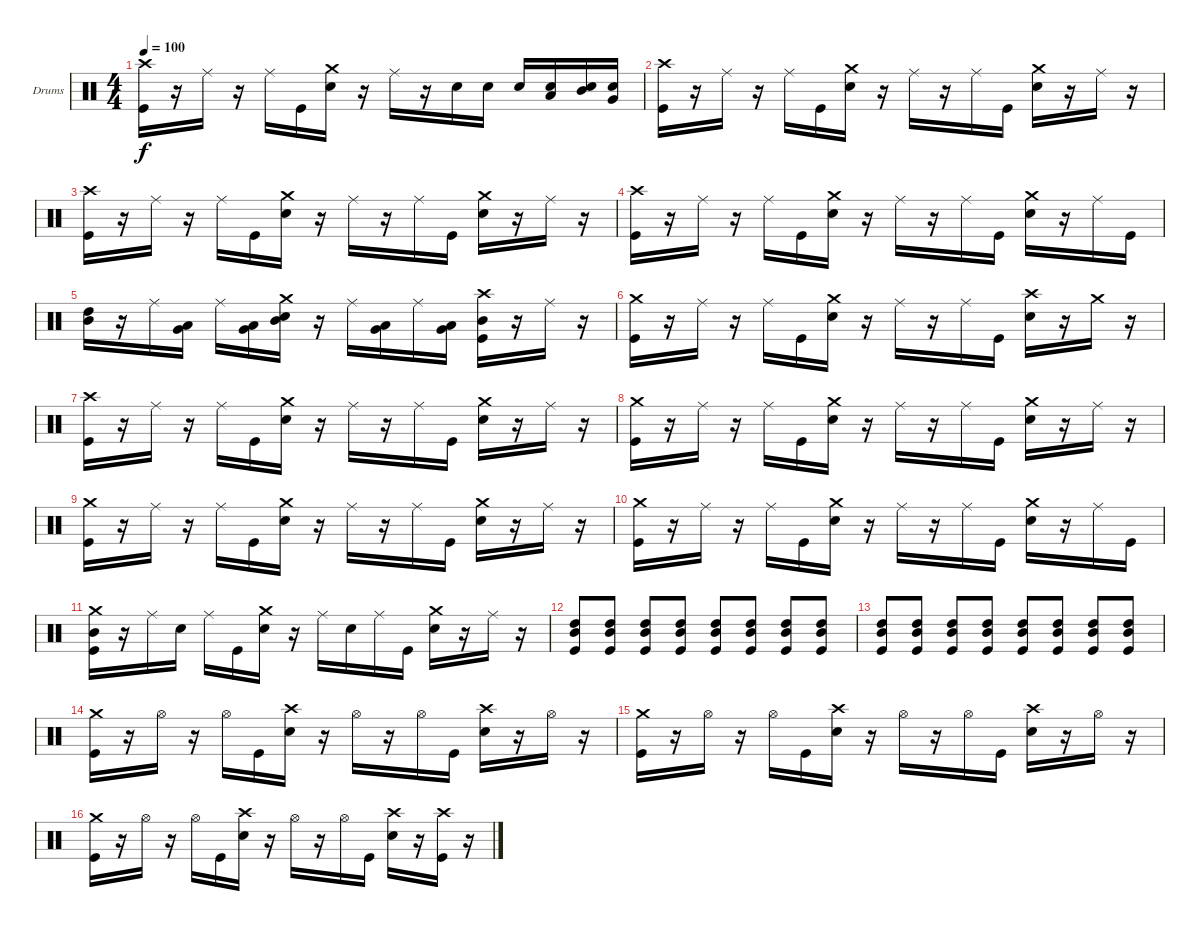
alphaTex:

\bracketExtendMode groupsimilarinstruments
\firstSystemTrackNameOrientation horizontal
\otherSystemsTrackNameOrientation horizontal
\track ("Drumkit (Christoph)" "Drums") {instrument percussion}
\staff {score}
\articulation defaults
\ts (4 4)
\tempo 100
\clef neutral
\ks c
("Crash high (hit)" "Kick (hit)").16{dy f} r.16 "Ride (middle)".16 r.16 "Ride (middle)".16 "Kick (hit)".16 ("Crash medium (hit)" "Snare (hit) 2").16 r.16 "Ride (middle)".16 r.16 "Snare (hit) 2".16 "Snare (hit) 2".16 "Snare (hit) 2".16 ("Low Tom (hit)" "Snare (hit) 2").16 ("Mid Tom (hit)" "Snare (hit) 2").16 ("Very Low Tom (hit)" "Snare (hit) 2").16 |
("Crash high (hit)" "Kick (hit)").16 r.16 "Ride (middle)".16 r.16 "Ride (middle)".16 "Kick (hit)".16 ("Crash medium (hit)" "Snare (hit) 2").16 r.16 "Ride (middle)".16 r.16 "Ride (middle)".16 "Kick (hit)".16 ("Crash medium (hit)" "Snare (hit) 2").16 r.16 "Ride (middle)".16 r.16 |
("Crash high (hit)" "Kick (hit)").16 r.16 "Ride (middle)".16 r.16 "Ride (middle)".16 "Kick (hit)".16 ("Crash medium (hit)" "Snare (hit) 2").16 r.16 "Ride (middle)".16 r.16 "Ride (middle)".16 "Kick (hit)".16 ("Crash medium (hit)" "Snare (hit) 2").16 r.16 "Ride (middle)".16 r.16 |
("Crash high (hit)" "Kick (hit)").16 r.16 "Ride (middle)".16 r.16 "Ride (middle)".16 "Kick (hit)".16 ("Crash medium (hit)" "Snare (hit) 2").16 r.16 "Ride (middle)".16 r.16 "Ride (middle)".16 "Kick (hit)".16 ("Crash medium (hit)" "Snare (hit) 2").16 r.16 "Ride (middle)".16 "Kick (hit)".16 |
("High Tom (hit)" "Mid Tom (hit)").16 r.16 "Ride (middle)".16 ("Low Tom (hit)" "Very Low Tom (hit)").16 "Ride (middle)".16 ("Low Tom (hit)" "Very Low Tom (hit)").16 ("Crash medium (hit)" "Mid Tom (hit)" "Snare (hit) 2").16 r.16 "Ride (middle)".16 ("Low Tom (hit)" "Very Low Tom (hit)").16 "Ride (middle)".16 ("Low Tom (hit)" "Very Low Tom (hit)").16 ("Crash high (hit)" "Mid Tom (hit)" "Kick (hit)").16 r.16 "Ride (middle)".16 r.16 |
("Crash medium (hit)" "Kick (hit)").16 r.16 "Ride (middle)".16 r.16 "Ride (middle)".16 "Kick (hit)".16 ("Crash medium (hit)" "Snare (hit) 2").16 r.16 "Ride (middle)".16 r.16 "Ride (middle)".16 "Kick (hit)".16 ("Crash high (hit)" "Snare (hit) 2").16 r.16 "Crash medium (hit)".16 r.16 |
("Crash high (hit)" "Kick (hit)").16 r.16 "Ride (middle)".16 r.16 "Ride (middle)".16 "Kick (hit)".16 ("Crash medium (hit)" "Snare (hit) 2").16 r.16 "Ride (middle)".16 r.16 "Ride (middle)".16 "Kick (hit)".16 ("Crash medium (hit)" "Snare (hit) 2").16 r.16 "Ride (middle)".16 r.16 |
("Crash medium (hit)" "Kick (hit)").16 r.16 "Ride (middle)".16 r.16 "Ride (middle)".16 "Kick (hit)".16 ("Crash medium (hit)" "Snare (hit) 2").16 r.16 "Ride (middle)".16 r.16 "Ride (middle)".16 "Kick (hit)".16 ("Crash medium (hit)" "Snare (hit) 2").16 r.16 "Ride (middle)".16 r.16 |
("Crash medium (hit)" "Kick (hit)").16 r.16 "Ride (middle)".16 r.16 "Ride (middle)".16 "Kick (hit)".16 ("Crash medium (hit)" "Snare (hit) 2").16 r.16 "Ride (middle)".16 r.16 "Ride (middle)".16 "Kick (hit)".16 ("Crash medium (hit)" "Snare (hit) 2").16 r.16 "Ride (middle)".16 r.16 |
("Crash medium (hit)" "Kick (hit)").16 r.16 "Ride (middle)".16 r.16 "Ride (middle)".16 "Kick (hit)".16 ("Crash medium (hit)" "Snare (hit) 2").16 r.16 "Ride (middle)".16 r.16 "Ride (middle)".16 "Kick (hit)".16 ("Crash medium (hit)" "Snare (hit) 2").16 r.16 "Ride (middle)".16 "Kick (hit)".16 |
("Crash medium (hit)" "Mid Tom (hit)" "Kick (hit)").16 r.16 "Ride (middle)".16 "Snare (hit) 2".16 "Ride (middle)".16 "Kick (hit)".16 ("Crash medium (hit)" "Snare (hit) 2").16 r.16 "Ride (middle)".16 "Snare (hit) 2".16 "Ride (middle)".16 "Kick (hit)".16 ("Crash medium (hit)" "Snare (hit) 2").16 r.16 "Ride (middle)".16 r.16 |
("High Tom (hit)" "Mid Tom (hit)" "Kick (hit)").8 ("High Tom (hit)" "Mid Tom (hit)" "Kick (hit)").8 ("High Tom (hit)" "Mid Tom (hit)" "Kick (hit)").8 ("High Tom (hit)" "Mid Tom (hit)" "Kick (hit)").8 ("High Tom (hit)" "Mid Tom (hit)" "Kick (hit)").8 ("High Tom (hit)" "Mid Tom (hit)" "Kick (hit)").8 ("High Tom (hit)" "Mid Tom (hit)" "Kick (hit)").8 ("High Tom (hit)" "Mid Tom (hit)" "Kick (hit)").8 |
("High Tom (hit)" "Mid Tom (hit)" "Kick (hit)").8 ("High Tom (hit)" "Mid Tom (hit)" "Kick (hit)").8 ("High Tom (hit)" "Mid Tom (hit)" "Kick (hit)").8 ("High Tom (hit)" "Mid Tom (hit)" "Kick (hit)").8 ("High Tom (hit)" "Mid Tom (hit)" "Kick (hit)").8 ("High Tom (hit)" "Mid Tom (hit)" "Kick (hit)").8 ("High Tom (hit)" "Mid Tom (hit)" "Kick (hit)").8 ("High Tom (hit)" "Mid Tom (hit)" "Kick (hit)").8 |
("Crash medium (hit)" "Kick (hit)").16 r.16 "Hi-Hat (open)".16 r.16 "Hi-Hat (open)".16 "Kick (hit)".16 ("Crash high (hit)" "Snare (hit) 2").16 r.16 "Hi-Hat (open)".16 r.16 "Hi-Hat (open)".16 "Kick (hit)".16 ("Crash high (hit)" "Snare (hit) 2").16 r.16 "Hi-Hat (open)".16 r.16 |
("Crash medium (hit)" "Kick (hit)").16 r.16 "Hi-Hat (open)".16 r.16 "Hi-Hat (open)".16 "Kick (hit)".16 ("Crash high (hit)" "Snare (hit) 2").16 r.16 "Hi-Hat (open)".16 r.16 "Hi-Hat (open)".16 "Kick (hit)".16 ("Crash high (hit)" "Snare (hit) 2").16 r.16 "Hi-Hat (open)".16 r.16 |
("Crash medium (hit)" "Kick (hit)").16 r.16 "Hi-Hat (open)".16 r.16 "Hi-Hat (open)".16 "Kick (hit)".16 ("Crash high (hit)" "Snare (hit) 2").16 r.16 "Hi-Hat (open)".16 r.16 "Hi-Hat (open)".16 "Kick (hit)".16 ("Crash high (hit)" "Snare (hit) 2").16 r.16 ("Crash high (hit)" "Kick (hit)").16 r.16
